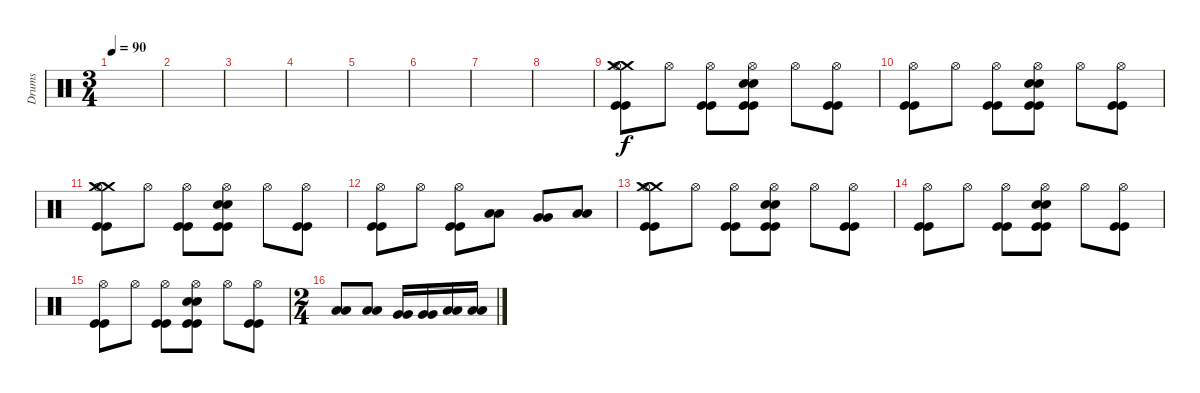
\track ("Drums" "Drums") {instrument percussion}
\staff {score}
\articulation defaults
\ts (3 4)
\tempo 90
\clef neutral
\ks c
|
|
|
|
|
|
|
|
("Crash medium (hit)" "Hi-Hat (open)" "Crash medium (hit)" "Kick (hit)" "Kick (hit)").8 "Hi-Hat (open)".8 ("Hi-Hat (open)" "Kick (hit)" "Kick (hit)").8 ("Hi-Hat (open)" "Electric Snare (hit)" "Electric Snare (hit)" "Kick (hit)" "Kick (hit)").8 "Hi-Hat (open)".8 ("Hi-Hat (open)" "Kick (hit)" "Kick (hit)").8 |
("Hi-Hat (open)" "Kick (hit)" "Kick (hit)").8 "Hi-Hat (open)".8 ("Hi-Hat (open)" "Kick (hit)" "Kick (hit)").8 ("Hi-Hat (open)" "Electric Snare (hit)" "Electric Snare (hit)" "Kick (hit)" "Kick (hit)").8 "Hi-Hat (open)".8 ("Hi-Hat (open)" "Kick (hit)" "Kick (hit)").8 |
("Crash medium (hit)" "Hi-Hat (open)" "Crash medium (hit)" "Kick (hit)" "Kick (hit)").8 "Hi-Hat (open)".8 ("Hi-Hat (open)" "Kick (hit)" "Kick (hit)").8 ("Hi-Hat (open)" "Snare (hit)" "Electric Snare (hit)" "Kick (hit)" "Kick (hit)").8 "Hi-Hat (open)".8 ("Hi-Hat (open)" "Kick (hit)" "Kick (hit)").8 |
("Hi-Hat (open)" "Kick (hit)" "Kick (hit)").8 "Hi-Hat (open)".8 ("Hi-Hat (open)" "Kick (hit)" "Kick (hit)").8 ("Low Tom (hit)" "Low Tom (hit)").8 ("Very Low Tom (hit)" "Very Low Tom (hit)").8 ("Low Floor Tom (hit)" "Low Floor Tom (hit)").8 |
("Crash medium (hit)" "Hi-Hat (open)" "Crash medium (hit)" "Kick (hit)" "Kick (hit)").8 "Hi-Hat (open)".8 ("Hi-Hat (open)" "Kick (hit)" "Kick (hit)").8 ("Hi-Hat (open)" "Electric Snare (hit)" "Electric Snare (hit)" "Kick (hit)" "Kick (hit)").8 "Hi-Hat (open)".8 ("Hi-Hat (open)" "Kick (hit)" "Kick (hit)").8 |
("Hi-Hat (open)" "Kick (hit)" "Kick (hit)").8 "Hi-Hat (open)".8 ("Hi-Hat (open)" "Kick (hit)" "Kick (hit)").8 ("Hi-Hat (open)" "Electric Snare (hit)" "Electric Snare (hit)" "Kick (hit)" "Kick (hit)").8 "Hi-Hat (open)".8 ("Hi-Hat (open)" "Kick (hit)" "Kick (hit)").8 |
("Hi-Hat (open)" "Kick (hit)" "Kick (hit)").8 "Hi-Hat (open)".8 ("Hi-Hat (open)" "Kick (hit)" "Kick (hit)").8 ("Hi-Hat (open)" "Electric Snare (hit)" "Electric Snare (hit)" "Kick (hit)" "Kick (hit)").8 "Hi-Hat (open)".8 ("Hi-Hat (open)" "Kick (hit)" "Kick (hit)").8 |
\ts (2 4)
("Low Tom (hit)" "Low Tom (hit)").8 ("Low Tom (hit)" "Low Tom (hit)").8 ("Very Low Tom (hit)" "Very Low Tom (hit)").16 ("Very Low Tom (hit)" "Very Low Tom (hit)").16 ("Low Floor Tom (hit)" "Low Floor Tom (hit)").16 ("Low Floor Tom (hit)" "Low Floor Tom (hit)").16
